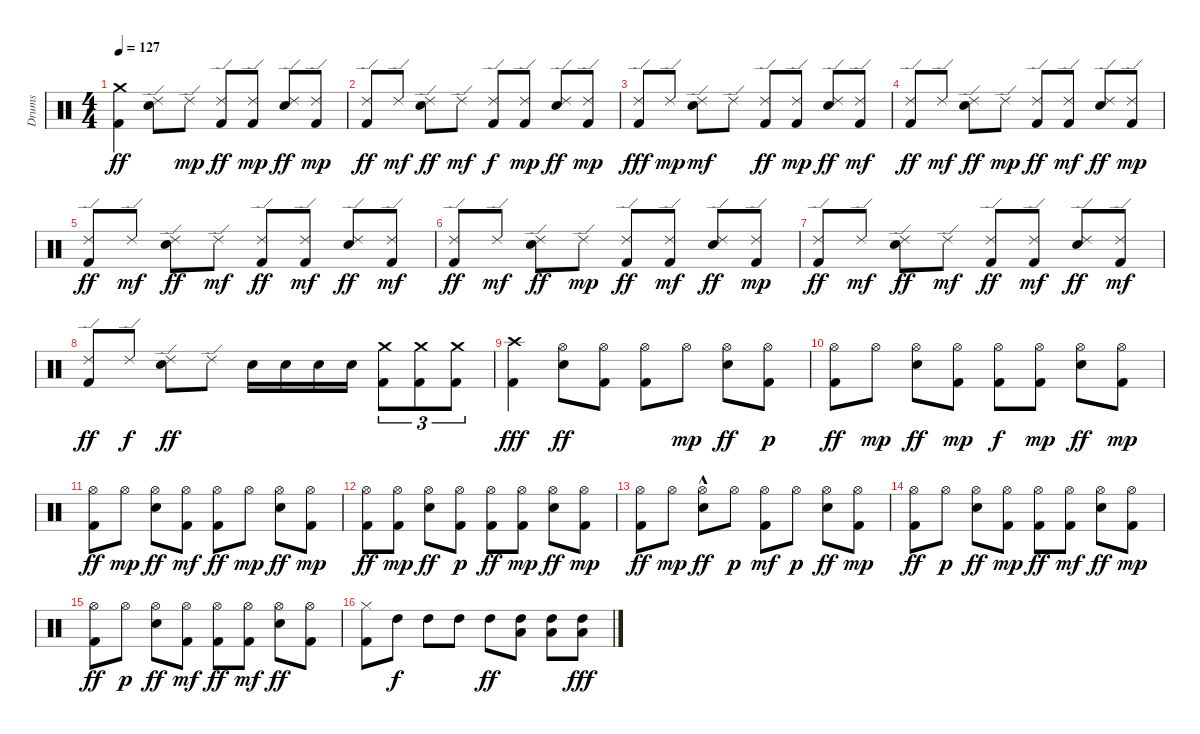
\track ("Drums" "Drums") {instrument percussion}
\staff {score}
\articulation defaults
\ts (4 4)
\tempo 127
\clef neutral
\ks c
("Kick (hit) 2" "Crash medium (hit)").4{dy ff} ("Ride (edge) 2" "Electric Snare (hit)").8 "Ride (edge) 2".8{dy mp} ("Kick (hit) 2" "Ride (edge) 2").8{dy ff} ("Kick (hit) 2" "Ride (edge) 2").8{dy mp} ("Electric Snare (hit)" "Ride (edge) 2").8{dy ff} ("Kick (hit) 2" "Ride (edge) 2").8{dy mp} |
("Kick (hit) 2" "Ride (edge) 2").8{dy ff} "Ride (edge) 2".8{dy mf} ("Ride (edge) 2" "Electric Snare (hit)").8{dy ff} "Ride (edge) 2".8{dy mf} ("Kick (hit) 2" "Ride (edge) 2").8{dy f} ("Kick (hit) 2" "Ride (edge) 2").8{dy mp} ("Electric Snare (hit)" "Ride (edge) 2").8{dy ff} ("Kick (hit) 2" "Ride (edge) 2").8{dy mp} |
("Kick (hit) 2" "Ride (edge) 2").8{dy fff} "Ride (edge) 2".8{dy mp} ("Electric Snare (hit)" "Ride (edge) 2").8{dy mf} "Ride (edge) 2".8 ("Kick (hit) 2" "Ride (edge) 2").8{dy ff} ("Kick (hit) 2" "Ride (edge) 2").8{dy mp} ("Electric Snare (hit)" "Ride (edge) 2").8{dy ff} ("Kick (hit) 2" "Ride (edge) 2").8{dy mf} |
("Kick (hit) 2" "Ride (edge) 2").8{dy ff} "Ride (edge) 2".8{dy mf} ("Electric Snare (hit)" "Ride (edge) 2").8{dy ff} "Ride (edge) 2".8{dy mp} ("Kick (hit) 2" "Ride (edge) 2").8{dy ff} ("Kick (hit) 2" "Ride (edge) 2").8{dy mf} ("Electric Snare (hit)" "Ride (edge) 2").8{dy ff} ("Kick (hit) 2" "Ride (edge) 2").8{dy mp} |
("Kick (hit) 2" "Ride (edge) 2").8{dy ff} "Ride (edge) 2".8{dy mf} ("Ride (edge) 2" "Electric Snare (hit)").8{dy ff} "Ride (edge) 2".8{dy mf} ("Ride (edge) 2" "Kick (hit) 2").8{dy ff} ("Ride (edge) 2" "Kick (hit) 2").8{dy mf} ("Ride (edge) 2" "Electric Snare (hit)").8{dy ff} ("Kick (hit) 2" "Ride (edge) 2").8{dy mf} |
("Kick (hit) 2" "Ride (edge) 2").8{dy ff} "Ride (edge) 2".8{dy mf} ("Electric Snare (hit)" "Ride (edge) 2").8{dy ff} "Ride (edge) 2".8{dy mp} ("Kick (hit) 2" "Ride (edge) 2").8{dy ff} ("Kick (hit) 2" "Ride (edge) 2").8{dy mf} ("Electric Snare (hit)" "Ride (edge) 2").8{dy ff} ("Kick (hit) 2" "Ride (edge) 2").8{dy mp} |
("Kick (hit) 2" "Ride (edge) 2").8{dy ff} "Ride (edge) 2".8{dy mf} ("Ride (edge) 2" "Electric Snare (hit)").8{dy ff} "Ride (edge) 2".8{dy mf} ("Ride (edge) 2" "Kick (hit) 2").8{dy ff} ("Ride (edge) 2" "Kick (hit) 2").8{dy mf} ("Ride (edge) 2" "Electric Snare (hit)").8{dy ff} ("Kick (hit) 2" "Ride (edge) 2").8{dy mf} |
("Kick (hit) 2" "Ride (edge) 2").8{dy ff} "Ride (edge) 2".8{dy f} ("Electric Snare (hit)" "Ride (edge) 2").8{dy ff} "Ride (edge) 2".8 "Electric Snare (hit)".16 "Electric Snare (hit)".16 "Electric Snare (hit)".16 "Electric Snare (hit)".16 ("Crash medium (hit)" "Kick (hit) 2").8{tu (3 2)} ("Kick (hit) 2" "Crash medium (hit)").8{tu (3 2)} ("Kick (hit) 2" "Crash medium (hit)").8{tu (3 2)} |
("Kick (hit) 2" "Crash high (hit)").4{dy fff} ("Hi-Hat (open)" "Electric Snare (hit)").8{dy ff} ("Hi-Hat (open)" "Kick (hit) 2").8 ("Hi-Hat (open)" "Kick (hit) 2").8 "Hi-Hat (open)".8{dy mp} ("Hi-Hat (open)" "Electric Snare (hit)").8{dy ff} ("Hi-Hat (open)" "Kick (hit) 2").8{dy p} |
("Hi-Hat (open)" "Kick (hit) 2").8{dy ff} "Hi-Hat (open)".8{dy mp} ("Electric Snare (hit)" "Hi-Hat (open)").8{dy ff} ("Hi-Hat (open)" "Kick (hit) 2").8{dy mp} ("Kick (hit) 2" "Hi-Hat (open)").8{dy f} ("Kick (hit) 2" "Hi-Hat (open)").8{dy mp} ("Electric Snare (hit)" "Hi-Hat (open)").8{dy ff} ("Kick (hit) 2" "Hi-Hat (open)").8{dy mp} |
("Kick (hit) 2" "Hi-Hat (open)").8{dy ff} "Hi-Hat (open)".8{dy mp} ("Electric Snare (hit)" "Hi-Hat (open)").8{dy ff} ("Hi-Hat (open)" "Kick (hit) 2").8{dy mf} ("Kick (hit) 2" "Hi-Hat (open)").8{dy ff} "Hi-Hat (open)".8{dy mp} ("Electric Snare (hit)" "Hi-Hat (open)").8{dy ff} ("Kick (hit) 2" "Hi-Hat (open)").8{dy mp} |
("Kick (hit) 2" "Hi-Hat (open)").8{dy ff} ("Kick (hit) 2" "Hi-Hat (open)").8{dy mp} ("Electric Snare (hit)" "Hi-Hat (open)").8{dy ff} ("Kick (hit) 2" "Hi-Hat (open)").8{dy p} ("Kick (hit) 2" "Hi-Hat (open)").8{dy ff} ("Kick (hit) 2" "Hi-Hat (open)").8{dy mp} ("Electric Snare (hit)" "Hi-Hat (open)").8{dy ff} ("Kick (hit) 2" "Hi-Hat (open)").8{dy mp} |
("Kick (hit) 2" "Hi-Hat (open)").8{dy ff} "Hi-Hat (open)".8{dy mp} ("Electric Snare (hit)" "Hi-Hat (open)"{hac}).8{dy ff} "Hi-Hat (open)".8{dy p} ("Kick (hit) 2" "Hi-Hat (open)").8{dy mf} "Hi-Hat (open)".8{dy p} ("Electric Snare (hit)" "Hi-Hat (open)").8{dy ff} ("Kick (hit) 2" "Hi-Hat (open)").8{dy mp} |
("Kick (hit) 2" "Hi-Hat (open)").8{dy ff} "Hi-Hat (open)".8{dy p} ("Electric Snare (hit)" "Hi-Hat (open)").8{dy ff} ("Kick (hit) 2" "Hi-Hat (open)").8{dy mp} ("Kick (hit) 2" "Hi-Hat (open)").8{dy ff} ("Kick (hit) 2" "Hi-Hat (open)").8{dy mf} ("Hi-Hat (open)" "Electric Snare (hit)").8{dy ff} ("Kick (hit) 2" "Hi-Hat (open)").8{dy mp} |
("Kick (hit) 2" "Hi-Hat (open)").8{dy ff} "Hi-Hat (open)".8{dy p} ("Hi-Hat (open)" "Electric Snare (hit)").8{dy ff} ("Hi-Hat (open)" "Kick (hit) 2").8{dy mf} ("Kick (hit) 2" "Hi-Hat (open)").8{dy ff} ("Kick (hit) 2" "Hi-Hat (open)").8{dy mf} ("Electric Snare (hit)" "Hi-Hat (open)").8{dy ff} ("Kick (hit) 2" "Hi-Hat (open)").8 |
("Kick (hit) 2" "Hi-Hat (closed)").8 "High Tom (hit)".8{dy f} "High Tom (hit)".8 "High Tom (hit)".8 "High Tom (hit)".8{dy ff} ("High Tom (hit)" "Low Tom (hit)").8 ("Low Tom (hit)" "High Tom (hit)").8 ("Low Floor Tom (hit)" "High Tom (hit)").8{dy fff}
